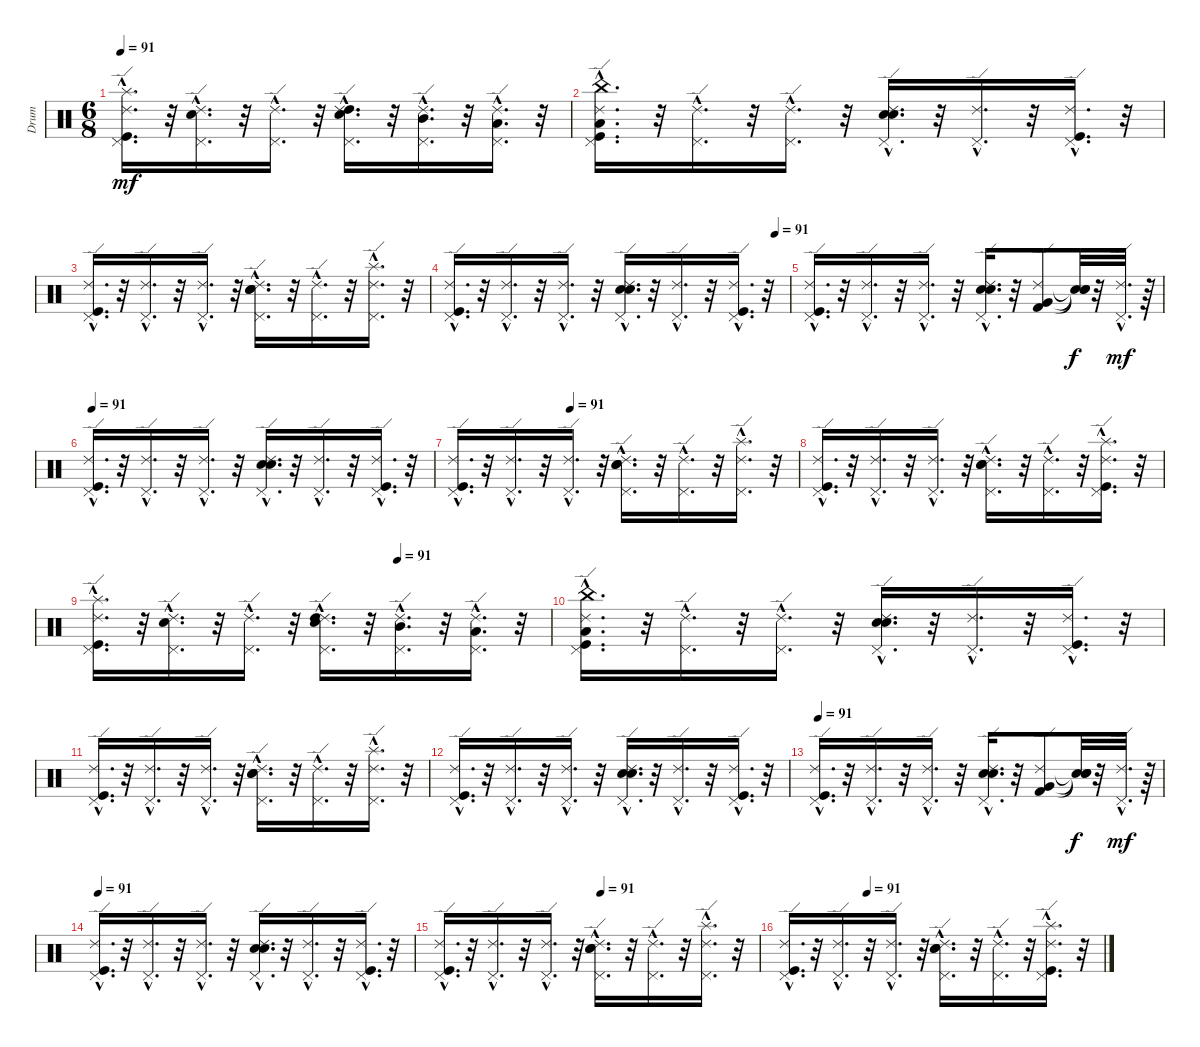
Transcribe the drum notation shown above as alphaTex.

\track ("Drum" "Drum") {instrument percussion}
\staff {score}
\articulation defaults
\ts (6 8)
\tempo 91
\clef neutral
\ks c
("Splash (hit)"{hac} "Kick (hit)"{hac} "Ride (edge) 2"{hac} "Pedal Hi-Hat (hit)"{hac}).16{d dy mf} r.32 ("Ride (edge) 2"{hac} "Pedal Hi-Hat (hit)"{hac} "Snare (hit) 2"{hac}).16{d} r.32 ("Ride (edge) 2"{hac} "Pedal Hi-Hat (hit)"{hac}).16{d} r.32 ("High Tom (hit)"{hac} "Snare (hit) 2"{hac} "Ride (edge) 2"{hac} "Pedal Hi-Hat (hit)"{hac}).16{d} r.32 ("Mid Tom (hit)"{hac} "Ride (edge) 2"{hac} "Pedal Hi-Hat (hit)"{hac}).16{d} r.32 ("Low Tom (hit)"{hac} "Ride (edge) 2"{hac} "Pedal Hi-Hat (hit)"{hac}).16{d} r.32 |
("Low Floor Tom (hit)"{hac} "Kick (hit)"{hac} "Pedal Hi-Hat (hit)"{hac} "Ride (edge) 2"{hac} "China (hit)"{hac}).16{d} r.32 ("Pedal Hi-Hat (hit)"{hac} "Ride (edge) 2"{hac}).16{d} r.32 ("Pedal Hi-Hat (hit)"{hac} "Ride (edge) 2"{hac}).16{d} r.32 ("Pedal Hi-Hat (hit)"{hac} "Snare (hit) 2"{hac} "Ride (edge) 2"{hac} "Hand Clap (hit)"{hac}).16{d} r.32 ("Pedal Hi-Hat (hit)"{hac} "Ride (edge) 2"{hac}).16{d} r.32 ("Kick (hit)"{hac} "Pedal Hi-Hat (hit)"{hac} "Ride (edge) 2"{hac}).16{d} r.32 |
("Ride (edge) 2"{hac} "Pedal Hi-Hat (hit)"{hac} "Kick (hit)"{hac}).16{d} r.32 ("Ride (edge) 2"{hac} "Pedal Hi-Hat (hit)"{hac}).16{d} r.32 ("Ride (edge) 2"{hac} "Pedal Hi-Hat (hit)"{hac}).16{d} r.32 ("Hand Clap (hit)"{hac} "Ride (edge) 2"{hac} "Snare (hit) 2"{hac} "Pedal Hi-Hat (hit)"{hac}).16{d} r.32 ("Ride (edge) 2"{hac} "Pedal Hi-Hat (hit)"{hac}).16{d} r.32 ("Ride (edge) 2"{hac} "Pedal Hi-Hat (hit)"{hac} "Splash (hit)"{hac}).16{d} r.32 |
\tempo (91 0.9583333333333334)
("Ride (edge) 2"{hac} "Pedal Hi-Hat (hit)"{hac} "Kick (hit)"{hac}).16{d} r.32 ("Pedal Hi-Hat (hit)"{hac} "Ride (edge) 2"{hac}).16{d} r.32 ("Ride (edge) 2"{hac} "Pedal Hi-Hat (hit)"{hac}).16{d} r.32 ("Pedal Hi-Hat (hit)"{hac} "Hand Clap (hit)"{hac} "Ride (edge) 2"{hac} "Snare (hit) 2"{hac}).16{d} r.32 ("Ride (edge) 2"{hac} "Pedal Hi-Hat (hit)"{hac}).16{d} r.32 ("Kick (hit)"{hac} "Ride (edge) 2"{hac} "Pedal Hi-Hat (hit)"{hac}).16{d} r.32 |
("Kick (hit)"{hac} "Pedal Hi-Hat (hit)"{hac} "Ride (edge) 2"{hac}).16{d} r.32 ("Pedal Hi-Hat (hit)"{hac} "Ride (edge) 2"{hac}).16{d} r.32 ("Pedal Hi-Hat (hit)"{hac} "Ride (edge) 2"{hac}).16{d} r.32 ("Snare (hit) 2"{hac} "Pedal Hi-Hat (hit)"{hac} "Hand Clap (hit)"{hac} "Ride (edge) 2"{hac}).16{d} r.32 ("Kick (hit) 2" "Very Low Tom (hit)" "Ride (edge) 2").8 ("Snare (hit)"{t} "Snare (hit)"{t} "Snare (hit)"{t}).32{dy f} r.32 ("Ride (edge) 2"{hac} "Pedal Hi-Hat (hit)"{hac}).32{d dy mf} r.64 |
\tempo 91
("Ride (edge) 2"{hac} "Pedal Hi-Hat (hit)"{hac} "Kick (hit)"{hac}).16{d} r.32 ("Ride (edge) 2"{hac} "Pedal Hi-Hat (hit)"{hac}).16{d} r.32 ("Ride (edge) 2"{hac} "Pedal Hi-Hat (hit)"{hac}).16{d} r.32 ("Hand Clap (hit)"{hac} "Ride (edge) 2"{hac} "Snare (hit) 2"{hac} "Pedal Hi-Hat (hit)"{hac}).16{d} r.32 ("Ride (edge) 2"{hac} "Pedal Hi-Hat (hit)"{hac}).16{d} r.32 ("Ride (edge) 2"{hac} "Pedal Hi-Hat (hit)"{hac} "Kick (hit)"{hac}).16{d} r.32 |
\tempo (91 0.3333333333333333)
("Kick (hit)"{hac} "Pedal Hi-Hat (hit)"{hac} "Ride (edge) 2"{hac}).16{d} r.32 ("Pedal Hi-Hat (hit)"{hac} "Ride (edge) 2"{hac}).16{d} r.32 ("Pedal Hi-Hat (hit)"{hac} "Ride (edge) 2"{hac}).16{d} r.32 ("Pedal Hi-Hat (hit)"{hac} "Snare (hit) 2"{hac} "Ride (edge) 2"{hac} "Hand Clap (hit)"{hac}).16{d} r.32 ("Pedal Hi-Hat (hit)"{hac} "Ride (edge) 2"{hac}).16{d} r.32 ("Splash (hit)"{hac} "Pedal Hi-Hat (hit)"{hac} "Ride (edge) 2"{hac}).16{d} r.32 |
("Kick (hit)"{hac} "Pedal Hi-Hat (hit)"{hac} "Ride (edge) 2"{hac}).16{d} r.32 ("Pedal Hi-Hat (hit)"{hac} "Ride (edge) 2"{hac}).16{d} r.32 ("Pedal Hi-Hat (hit)"{hac} "Ride (edge) 2"{hac}).16{d} r.32 ("Pedal Hi-Hat (hit)"{hac} "Snare (hit) 2"{hac} "Ride (edge) 2"{hac} "Hand Clap (hit)"{hac}).16{d} r.32 ("Pedal Hi-Hat (hit)"{hac} "Ride (edge) 2"{hac}).16{d} r.32 ("Pedal Hi-Hat (hit)"{hac} "Ride (edge) 2"{hac} "Splash (hit)"{hac} "Kick (hit)"{hac}).16{d} r.32 |
\tempo (91 0.6666666666666666)
("Kick (hit)"{hac} "Pedal Hi-Hat (hit)"{hac} "Ride (edge) 2"{hac} "Splash (hit)"{hac}).16{d} r.32 ("Snare (hit) 2"{hac} "Pedal Hi-Hat (hit)"{hac} "Ride (edge) 2"{hac}).16{d} r.32 ("Pedal Hi-Hat (hit)"{hac} "Ride (edge) 2"{hac}).16{d} r.32 ("Pedal Hi-Hat (hit)"{hac} "Snare (hit) 2"{hac} "Ride (edge) 2"{hac} "High Tom (hit)"{hac}).16{d} r.32 ("Pedal Hi-Hat (hit)"{hac} "Ride (edge) 2"{hac} "Mid Tom (hit)"{hac}).16{d} r.32 ("Pedal Hi-Hat (hit)"{hac} "Ride (edge) 2"{hac} "Low Tom (hit)"{hac}).16{d} r.32 |
("China (hit)"{hac} "Ride (edge) 2"{hac} "Low Floor Tom (hit)"{hac} "Kick (hit)"{hac} "Pedal Hi-Hat (hit)"{hac}).16{d} r.32 ("Pedal Hi-Hat (hit)"{hac} "Ride (edge) 2"{hac}).16{d} r.32 ("Pedal Hi-Hat (hit)"{hac} "Ride (edge) 2"{hac}).16{d} r.32 ("Pedal Hi-Hat (hit)"{hac} "Ride (edge) 2"{hac} "Snare (hit) 2"{hac} "Hand Clap (hit)"{hac}).16{d} r.32 ("Pedal Hi-Hat (hit)"{hac} "Ride (edge) 2"{hac}).16{d} r.32 ("Pedal Hi-Hat (hit)"{hac} "Ride (edge) 2"{hac} "Kick (hit)"{hac}).16{d} r.32 |
("Ride (edge) 2"{hac} "Pedal Hi-Hat (hit)"{hac} "Kick (hit)"{hac}).16{d} r.32 ("Ride (edge) 2"{hac} "Pedal Hi-Hat (hit)"{hac}).16{d} r.32 ("Ride (edge) 2"{hac} "Pedal Hi-Hat (hit)"{hac}).16{d} r.32 ("Hand Clap (hit)"{hac} "Ride (edge) 2"{hac} "Snare (hit) 2"{hac} "Pedal Hi-Hat (hit)"{hac}).16{d} r.32 ("Ride (edge) 2"{hac} "Pedal Hi-Hat (hit)"{hac}).16{d} r.32 ("Ride (edge) 2"{hac} "Pedal Hi-Hat (hit)"{hac} "Splash (hit)"{hac}).16{d} r.32 |
("Ride (edge) 2"{hac} "Pedal Hi-Hat (hit)"{hac} "Kick (hit)"{hac}).16{d} r.32 ("Ride (edge) 2"{hac} "Pedal Hi-Hat (hit)"{hac}).16{d} r.32 ("Ride (edge) 2"{hac} "Pedal Hi-Hat (hit)"{hac}).16{d} r.32 ("Hand Clap (hit)"{hac} "Ride (edge) 2"{hac} "Snare (hit) 2"{hac} "Pedal Hi-Hat (hit)"{hac}).16{d} r.32 ("Ride (edge) 2"{hac} "Pedal Hi-Hat (hit)"{hac}).16{d} r.32 ("Ride (edge) 2"{hac} "Pedal Hi-Hat (hit)"{hac} "Kick (hit)"{hac}).16{d} r.32 |
\tempo 91
("Kick (hit)"{hac} "Pedal Hi-Hat (hit)"{hac} "Ride (edge) 2"{hac}).16{d} r.32 ("Pedal Hi-Hat (hit)"{hac} "Ride (edge) 2"{hac}).16{d} r.32 ("Pedal Hi-Hat (hit)"{hac} "Ride (edge) 2"{hac}).16{d} r.32 ("Snare (hit) 2"{hac} "Pedal Hi-Hat (hit)"{hac} "Hand Clap (hit)"{hac} "Ride (edge) 2"{hac}).16{d} r.32 ("Kick (hit) 2" "Very Low Tom (hit)" "Ride (edge) 2").8 ("Snare (hit)"{t} "Snare (hit)"{t} "Snare (hit)"{t}).32{dy f} r.32 ("Ride (edge) 2"{hac} "Pedal Hi-Hat (hit)"{hac}).32{d dy mf} r.64 |
\tempo 91
("Ride (edge) 2"{hac} "Pedal Hi-Hat (hit)"{hac} "Kick (hit)"{hac}).16{d} r.32 ("Ride (edge) 2"{hac} "Pedal Hi-Hat (hit)"{hac}).16{d} r.32 ("Ride (edge) 2"{hac} "Pedal Hi-Hat (hit)"{hac}).16{d} r.32 ("Snare (hit) 2"{hac} "Ride (edge) 2"{hac} "Pedal Hi-Hat (hit)"{hac} "Hand Clap (hit)"{hac}).16{d} r.32 ("Ride (edge) 2"{hac} "Pedal Hi-Hat (hit)"{hac}).16{d} r.32 ("Ride (edge) 2"{hac} "Pedal Hi-Hat (hit)"{hac} "Kick (hit)"{hac}).16{d} r.32 |
\tempo (91 0.5)
("Ride (edge) 2"{hac} "Pedal Hi-Hat (hit)"{hac} "Kick (hit)"{hac}).16{d} r.32 ("Ride (edge) 2"{hac} "Pedal Hi-Hat (hit)"{hac}).16{d} r.32 ("Ride (edge) 2"{hac} "Pedal Hi-Hat (hit)"{hac}).16{d} r.32 ("Hand Clap (hit)"{hac} "Ride (edge) 2"{hac} "Pedal Hi-Hat (hit)"{hac} "Snare (hit) 2"{hac}).16{d} r.32 ("Pedal Hi-Hat (hit)"{hac} "Ride (edge) 2"{hac}).16{d} r.32 ("Pedal Hi-Hat (hit)"{hac} "Splash (hit)"{hac} "Ride (edge) 2"{hac}).16{d} r.32 |
\tempo (91 0.25)
("Ride (edge) 2"{hac} "Pedal Hi-Hat (hit)"{hac} "Kick (hit)"{hac}).16{d} r.32 ("Ride (edge) 2"{hac} "Pedal Hi-Hat (hit)"{hac}).16{d} r.32 ("Ride (edge) 2"{hac} "Pedal Hi-Hat (hit)"{hac}).16{d} r.32 ("Hand Clap (hit)"{hac} "Ride (edge) 2"{hac} "Snare (hit) 2"{hac} "Pedal Hi-Hat (hit)"{hac}).16{d} r.32 ("Ride (edge) 2"{hac} "Pedal Hi-Hat (hit)"{hac}).16{d} r.32 ("Splash (hit)"{hac} "Ride (edge) 2"{hac} "Pedal Hi-Hat (hit)"{hac} "Kick (hit)"{hac}).16{d} r.32
